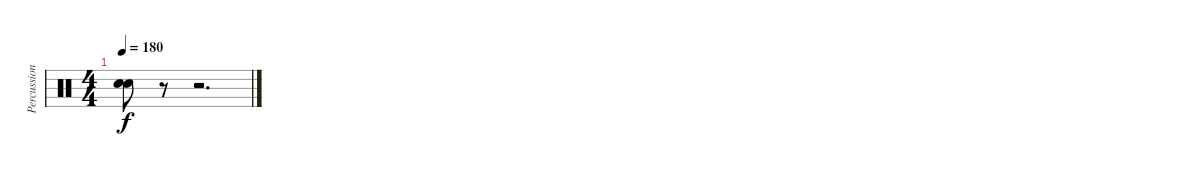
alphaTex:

\track ("Percussion" "Percussion") {instrument percussion}
\staff {score}
\articulation defaults
\ts (4 4)
\tempo 180
\clef neutral
\ks c
("Snare (hit) 2" "Electric Snare (hit)").8{dy f} r.8 r.2{d}
